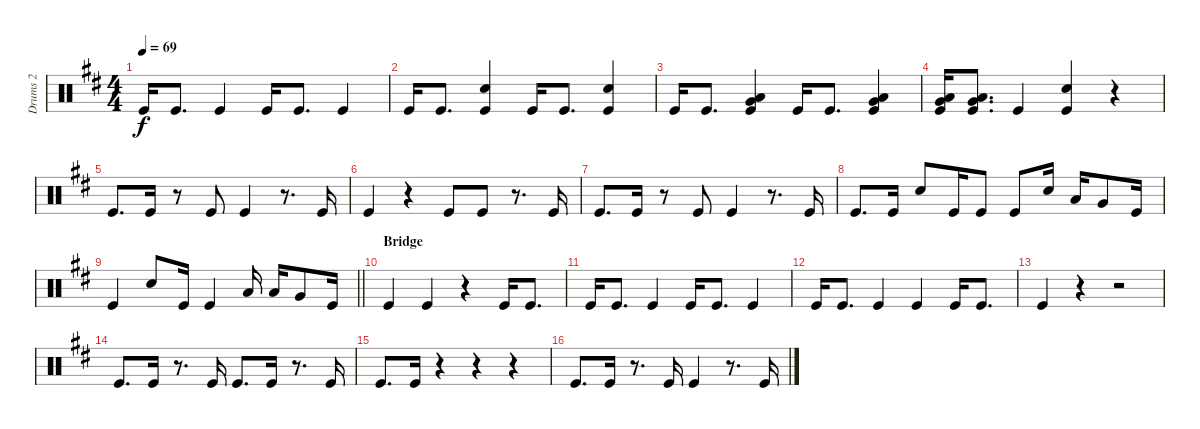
\track ("Drums 2" "Drums 2") {instrument percussion}
\staff {score}
\articulation defaults
\ts (4 4)
\tempo 69
\clef neutral
\ks d "Kick (hit)".16{dy f} "Kick (hit)".8{d} "Kick (hit)".4 "Kick (hit)".16 "Kick (hit)".8{d} "Kick (hit)".4
|
"Kick (hit)".16 "Kick (hit)".8{d} ("Kick (hit)" "Snare (hit) 2").4 "Kick (hit)".16 "Kick (hit)".8{d} ("Kick (hit)" "Snare (hit) 2").4 |
"Kick (hit)".16 "Kick (hit)".8{d} ("Kick (hit)" "Very Low Tom (hit)" "Low Tom (hit)").4 "Kick (hit)".16 "Kick (hit)".8{d} ("Kick (hit)" "Very Low Tom (hit)" "Low Tom (hit)").4 |
("Low Tom (hit)" "Very Low Tom (hit)" "Kick (hit)").16 ("Low Tom (hit)" "Very Low Tom (hit)" "Kick (hit)").8{d} "Kick (hit)".4 ("Snare (hit) 2" "Kick (hit)").4 r.4 |
"Kick (hit)".8{d} "Kick (hit)".16 r.8 "Kick (hit)".8 "Kick (hit)".4 r.8{d} "Kick (hit)".16 |
"Kick (hit)".4 r.4 "Kick (hit)".8 "Kick (hit)".8 r.8{d} "Kick (hit)".16 |
"Kick (hit)".8{d} "Kick (hit)".16 r.8 "Kick (hit)".8 "Kick (hit)".4 r.8{d} "Kick (hit)".16 |
"Kick (hit)".8{d} "Kick (hit)".16 "Snare (hit) 2".8 "Kick (hit)".16 "Kick (hit)".8 "Kick (hit)".8 "Snare (hit) 2".16 "Low Tom (hit)".16 "Very Low Tom (hit)".8 "Kick (hit)".16 |
\barLineRight lightlight "Kick (hit)".4 "Snare (hit) 2".8 "Kick (hit)".16 "Kick (hit)".4 "Low Tom (hit)".16 "Low Tom (hit)".16 "Very Low Tom (hit)".8 "Kick (hit)".16
|
\section ("" "Bridge")
"Kick (hit)".4 "Kick (hit)".4 r.4 "Kick (hit)".16 "Kick (hit)".8{d} |
"Kick (hit)".16 "Kick (hit)".8{d} "Kick (hit)".4 "Kick (hit)".16 "Kick (hit)".8{d} "Kick (hit)".4 |
"Kick (hit)".16 "Kick (hit)".8{d} "Kick (hit)".4 "Kick (hit)".4 "Kick (hit)".16 "Kick (hit)".8{d} |
"Kick (hit)".4 r.4 r.2 |
"Kick (hit)".8{d} "Kick (hit)".16 r.8{d} "Kick (hit)".16 "Kick (hit)".8{d} "Kick (hit)".16 r.8{d} "Kick (hit)".16 |
"Kick (hit)".8{d} "Kick (hit)".16 r.4 r.4 r.4 |
"Kick (hit)".8{d} "Kick (hit)".16 r.8{d} "Kick (hit)".16 "Kick (hit)".4 r.8{d} "Kick (hit)".16
